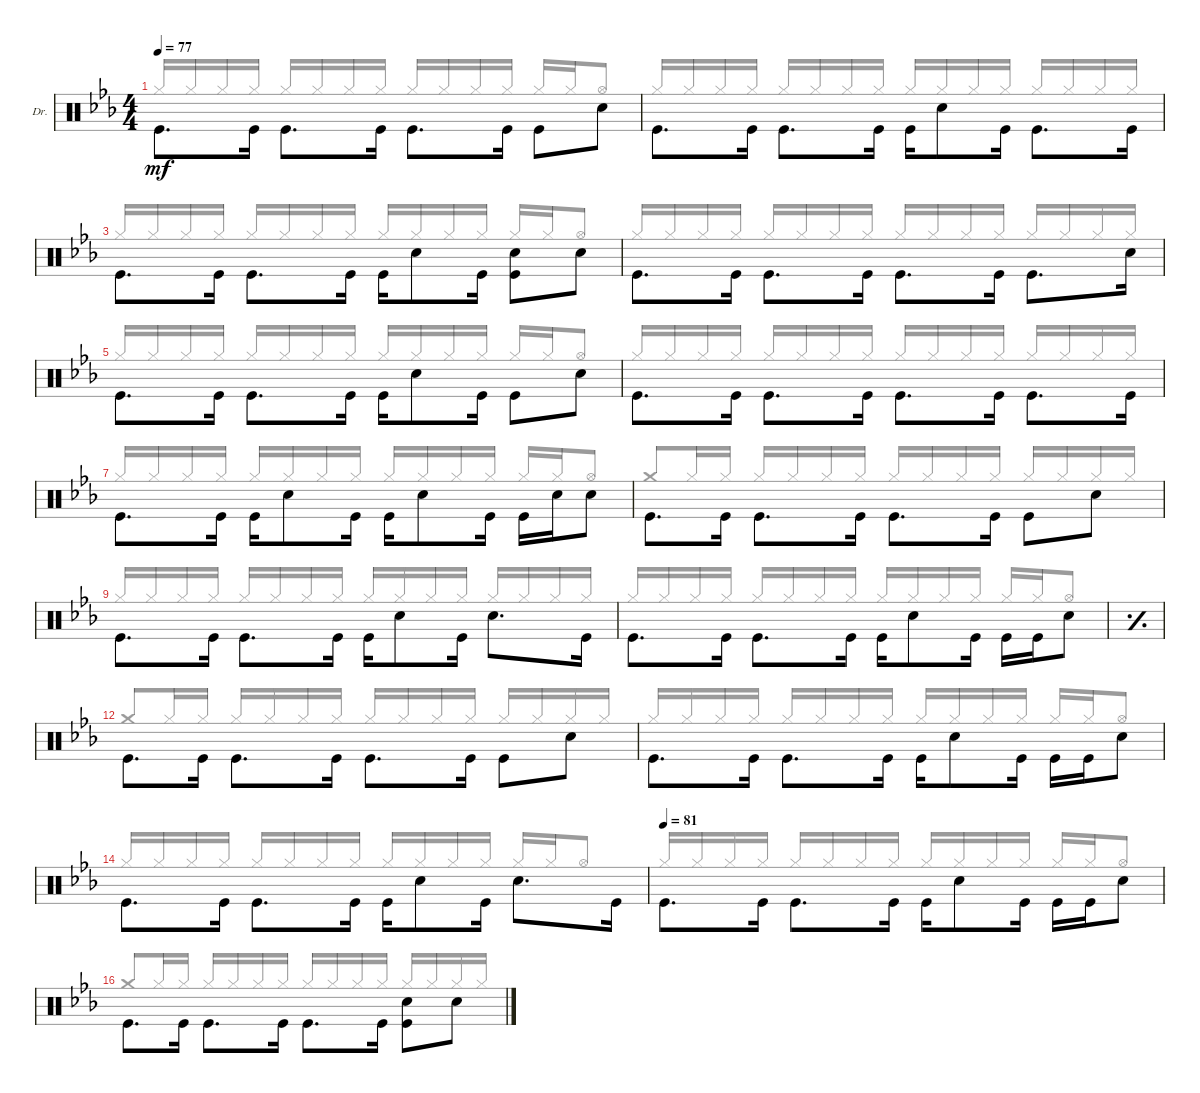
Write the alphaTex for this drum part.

\bracketExtendMode groupsimilarinstruments
\firstSystemTrackNameOrientation horizontal
\otherSystemsTrackNameOrientation horizontal
\defaultBarNumberDisplay FirstOfSystem
\track ("Drums" "Dr.") {multiBarRest instrument percussion}
\staff {score}
\articulation defaults
\voice
\ts (4 4)
\tempo 77
\clef neutral
\ks eb "Kick (hit)".8{d dy mf beam invert} "Kick (hit)".16 "Kick (hit)".8{d beam invert} "Kick (hit)".16 "Kick (hit)".8{d} "Kick (hit)".16{beam invert} "Kick (hit)".8 "Snare (hit) 2".8{beam invert}
|
"Kick (hit)".8{d} "Kick (hit)".16{beam invert} "Kick (hit)".8{d} "Kick (hit)".16{beam invert} "Kick (hit)".16{beam invert} "Snare (hit) 2".8 "Kick (hit)".16 "Kick (hit)".8{d} "Kick (hit)".16{beam invert} |
"Kick (hit)".8{d beam invert} "Kick (hit)".16 "Kick (hit)".8{d beam invert} "Kick (hit)".16 "Kick (hit)".16{beam invert} "Snare (hit) 2".8 "Kick (hit)".16 ("Snare (hit) 2" "Kick (hit)").8{beam invert} "Snare (hit) 2".8 |
"Kick (hit)".8{d beam invert} "Kick (hit)".16 "Kick (hit)".8{d beam invert} "Kick (hit)".16 "Kick (hit)".8{d beam invert} "Kick (hit)".16 "Kick (hit)".8{d beam invert} "Snare (hit) 2".16 |
"Kick (hit)".8{d beam invert} "Kick (hit)".16 "Kick (hit)".8{d beam invert} "Kick (hit)".16 "Kick (hit)".16{beam invert} "Snare (hit) 2".8 "Kick (hit)".16 "Kick (hit)".8 "Snare (hit) 2".8{beam invert} |
"Kick (hit)".8{d beam invert} "Kick (hit)".16 "Kick (hit)".8{d beam invert} "Kick (hit)".16 "Kick (hit)".8{d beam invert} "Kick (hit)".16 "Kick (hit)".8{d beam invert} "Kick (hit)".16 |
"Kick (hit)".8{d beam invert} "Kick (hit)".16 "Kick (hit)".16{beam invert} "Snare (hit) 2".8 "Kick (hit)".16 "Kick (hit)".16{beam invert} "Snare (hit) 2".8 "Kick (hit)".16 "Kick (hit)".16{beam invert} "Snare (hit) 2".16 "Snare (hit) 2".8 |
"Kick (hit)".8{d beam invert} "Kick (hit)".16 "Kick (hit)".8{d beam invert} "Kick (hit)".16 "Kick (hit)".8{d} "Kick (hit)".16{beam invert} "Kick (hit)".8{beam invert} "Snare (hit) 2".8 |
"Kick (hit)".8{d beam invert} "Kick (hit)".16 "Kick (hit)".8{d} "Kick (hit)".16{beam invert} "Kick (hit)".16 "Snare (hit) 2".8 "Kick (hit)".16{beam invert} "Snare (hit) 2".8{d} "Kick (hit)".16{beam invert} |
"Kick (hit)".8{d} "Kick (hit)".16{beam invert} "Kick (hit)".8{d} "Kick (hit)".16{beam invert} "Kick (hit)".16 "Snare (hit) 2".8{beam invert} "Kick (hit)".16 "Kick (hit)".16{beam invert} "Kick (hit)".16 "Snare (hit) 2".8 |
\simile simple
|
\simile none "Kick (hit)".8{d beam invert} "Kick (hit)".16 "Kick (hit)".8{d beam invert} "Kick (hit)".16 "Kick (hit)".8{d} "Kick (hit)".16{beam invert} "Kick (hit)".8{beam invert} "Snare (hit) 2".8
|
"Kick (hit)".8{d beam invert} "Kick (hit)".16 "Kick (hit)".8{d} "Kick (hit)".16{beam invert} "Kick (hit)".16 "Snare (hit) 2".8 "Kick (hit)".16{beam invert} "Kick (hit)".16 "Kick (hit)".16{beam invert} "Snare (hit) 2".8 |
"Kick (hit)".8{d beam invert} "Kick (hit)".16 "Kick (hit)".8{d} "Kick (hit)".16{beam invert} "Kick (hit)".16 "Snare (hit) 2".8 "Kick (hit)".16{beam invert} "Snare (hit) 2".8{d beam invert} "Kick (hit)".16 |
\tempo (81)
"Kick (hit)".8{d beam invert} "Kick (hit)".16 "Kick (hit)".8{d} "Kick (hit)".16{beam invert} "Kick (hit)".16 "Snare (hit) 2".8{beam invert} "Kick (hit)".16 "Kick (hit)".16{beam invert} "Kick (hit)".16 "Snare (hit) 2".8 |
"Kick (hit)".8{d} "Kick (hit)".16{beam invert} "Kick (hit)".8{d} "Kick (hit)".16{beam invert} "Kick (hit)".8{d} "Kick (hit)".16{beam invert} ("Kick (hit)" "Snare (hit) 2").8 "Snare (hit) 2".8{beam invert}
\voice
\clef neutral
\ottava regular
\simile none
\ks eb "Hi-Hat (closed)".16{dy mf beam invert} "Hi-Hat (closed)".16 "Hi-Hat (closed)".16 "Hi-Hat (closed)".16 "Hi-Hat (closed)".16{beam invert} "Hi-Hat (closed)".16 "Hi-Hat (closed)".16 "Hi-Hat (closed)".16 "Hi-Hat (closed)".16{beam invert} "Hi-Hat (closed)".16 "Hi-Hat (closed)".16 "Hi-Hat (closed)".16 "Hi-Hat (closed)".16{beam invert} "Hi-Hat (closed)".16 "Hi-Hat (open)".8
|
"Hi-Hat (closed)".16 "Hi-Hat (closed)".16{beam invert} "Hi-Hat (closed)".16 "Hi-Hat (closed)".16 "Hi-Hat (closed)".16 "Hi-Hat (closed)".16{beam invert} "Hi-Hat (closed)".16 "Hi-Hat (closed)".16 "Hi-Hat (closed)".16 "Hi-Hat (closed)".16{beam invert} "Hi-Hat (closed)".16 "Hi-Hat (closed)".16 "Hi-Hat (closed)".16{beam invert} "Hi-Hat (closed)".16 "Hi-Hat (closed)".16 "Hi-Hat (closed)".16 |
"Hi-Hat (closed)".16{beam invert} "Hi-Hat (closed)".16 "Hi-Hat (closed)".16 "Hi-Hat (closed)".16 "Hi-Hat (closed)".16{beam invert} "Hi-Hat (closed)".16 "Hi-Hat (closed)".16 "Hi-Hat (closed)".16 "Hi-Hat (closed)".16{beam invert} "Hi-Hat (closed)".16 "Hi-Hat (closed)".16 "Hi-Hat (closed)".16 "Hi-Hat (closed)".16{beam invert} "Hi-Hat (closed)".16 "Hi-Hat (open)".8 |
"Hi-Hat (closed)".16{beam invert} "Hi-Hat (closed)".16 "Hi-Hat (closed)".16 "Hi-Hat (closed)".16 "Hi-Hat (closed)".16 "Hi-Hat (closed)".16 "Hi-Hat (closed)".16{beam invert} "Hi-Hat (closed)".16 "Hi-Hat (closed)".16 "Hi-Hat (closed)".16 "Hi-Hat (closed)".16{beam invert} "Hi-Hat (closed)".16 "Hi-Hat (closed)".16 "Hi-Hat (closed)".16 "Hi-Hat (closed)".16{beam invert} "Hi-Hat (closed)".16 |
"Hi-Hat (closed)".16 "Hi-Hat (closed)".16 "Hi-Hat (closed)".16{beam invert} "Hi-Hat (closed)".16 "Hi-Hat (closed)".16 "Hi-Hat (closed)".16 "Hi-Hat (closed)".16{beam invert} "Hi-Hat (closed)".16 "Hi-Hat (closed)".16 "Hi-Hat (closed)".16 "Hi-Hat (closed)".16{beam invert} "Hi-Hat (closed)".16 "Hi-Hat (closed)".16 "Hi-Hat (closed)".16 "Hi-Hat (open)".8{beam invert} |
"Hi-Hat (closed)".16 "Hi-Hat (closed)".16 "Hi-Hat (closed)".16 "Hi-Hat (closed)".16{beam invert} "Hi-Hat (closed)".16 "Hi-Hat (closed)".16 "Hi-Hat (closed)".16 "Hi-Hat (closed)".16{beam invert} "Hi-Hat (closed)".16 "Hi-Hat (closed)".16 "Hi-Hat (closed)".16 "Hi-Hat (closed)".16{beam invert} "Hi-Hat (closed)".16 "Hi-Hat (closed)".16 "Hi-Hat (closed)".16 "Hi-Hat (closed)".16{beam invert} |
"Hi-Hat (closed)".16 "Hi-Hat (closed)".16 "Hi-Hat (closed)".16{beam invert} "Hi-Hat (closed)".16 "Hi-Hat (closed)".16 "Hi-Hat (closed)".16{beam invert} "Hi-Hat (closed)".16 "Hi-Hat (closed)".16 "Hi-Hat (closed)".16{beam invert} "Hi-Hat (closed)".16 "Hi-Hat (closed)".16 "Hi-Hat (closed)".16 "Hi-Hat (closed)".16{beam invert} "Hi-Hat (closed)".16 "Hi-Hat (open)".8 |
"Crash medium (hit)".8 "Hi-Hat (closed)".16{beam invert} "Hi-Hat (closed)".16 "Hi-Hat (closed)".16 "Hi-Hat (closed)".16 "Hi-Hat (closed)".16{beam invert} "Hi-Hat (closed)".16 "Hi-Hat (closed)".16 "Hi-Hat (closed)".16 "Hi-Hat (closed)".16{beam invert} "Hi-Hat (closed)".16 "Hi-Hat (closed)".16 "Hi-Hat (closed)".16 "Hi-Hat (closed)".16{beam invert} "Hi-Hat (closed)".16 |
"Hi-Hat (closed)".16 "Hi-Hat (closed)".16 "Hi-Hat (closed)".16{beam invert} "Hi-Hat (closed)".16 "Hi-Hat (closed)".16 "Hi-Hat (closed)".16 "Hi-Hat (closed)".16{beam invert} "Hi-Hat (closed)".16 "Hi-Hat (closed)".16 "Hi-Hat (closed)".16 "Hi-Hat (closed)".16{beam invert} "Hi-Hat (closed)".16 "Hi-Hat (closed)".16 "Hi-Hat (closed)".16 "Hi-Hat (closed)".16{beam invert} "Hi-Hat (closed)".16 |
"Hi-Hat (closed)".16 "Hi-Hat (closed)".16 "Hi-Hat (closed)".16{beam invert} "Hi-Hat (closed)".16 "Hi-Hat (closed)".16 "Hi-Hat (closed)".16{beam invert} "Hi-Hat (closed)".16 "Hi-Hat (closed)".16 "Hi-Hat (closed)".16{beam invert} "Hi-Hat (closed)".16 "Hi-Hat (closed)".16 "Hi-Hat (closed)".16 "Hi-Hat (closed)".16 "Hi-Hat (closed)".16 "Hi-Hat (open)".8{beam invert} |
\simile simple
|
\simile none "Crash medium (hit)".8{beam invert} "Hi-Hat (closed)".16 "Hi-Hat (closed)".16 "Hi-Hat (closed)".16 "Hi-Hat (closed)".16{beam invert} "Hi-Hat (closed)".16 "Hi-Hat (closed)".16 "Hi-Hat (closed)".16 "Hi-Hat (closed)".16{beam invert} "Hi-Hat (closed)".16 "Hi-Hat (closed)".16 "Hi-Hat (closed)".16 "Hi-Hat (closed)".16{beam invert} "Hi-Hat (closed)".16 "Hi-Hat (closed)".16
|
"Hi-Hat (closed)".16 "Hi-Hat (closed)".16{beam invert} "Hi-Hat (closed)".16 "Hi-Hat (closed)".16 "Hi-Hat (closed)".16 "Hi-Hat (closed)".16{beam invert} "Hi-Hat (closed)".16 "Hi-Hat (closed)".16 "Hi-Hat (closed)".16 "Hi-Hat (closed)".16{beam invert} "Hi-Hat (closed)".16 "Hi-Hat (closed)".16 "Hi-Hat (closed)".16 "Hi-Hat (closed)".16{beam invert} "Hi-Hat (open)".8 |
"Hi-Hat (closed)".16 "Hi-Hat (closed)".16 "Hi-Hat (closed)".16{beam invert} "Hi-Hat (closed)".16 "Hi-Hat (closed)".16 "Hi-Hat (closed)".16 "Hi-Hat (closed)".16{beam invert} "Hi-Hat (closed)".16 "Hi-Hat (closed)".16 "Hi-Hat (closed)".16 "Hi-Hat (closed)".16{beam invert} "Hi-Hat (closed)".16 "Hi-Hat (closed)".16 "Hi-Hat (closed)".16 "Hi-Hat (open)".8{beam invert} |
"Hi-Hat (closed)".16 "Hi-Hat (closed)".16 "Hi-Hat (closed)".16 "Hi-Hat (closed)".16{beam invert} "Hi-Hat (closed)".16 "Hi-Hat (closed)".16 "Hi-Hat (closed)".16{beam invert} "Hi-Hat (closed)".16 "Hi-Hat (closed)".16 "Hi-Hat (closed)".16{beam invert} "Hi-Hat (closed)".16 "Hi-Hat (closed)".16 "Hi-Hat (closed)".16{beam invert} "Hi-Hat (closed)".16 "Hi-Hat (open)".8 |
"Crash medium (hit)".8 "Hi-Hat (closed)".16{beam invert} "Hi-Hat (closed)".16 "Hi-Hat (closed)".16 "Hi-Hat (closed)".16 "Hi-Hat (closed)".16{beam invert} "Hi-Hat (closed)".16 "Hi-Hat (closed)".16 "Hi-Hat (closed)".16 "Hi-Hat (closed)".16{beam invert} "Hi-Hat (closed)".16 "Hi-Hat (closed)".16 "Hi-Hat (closed)".16{beam invert} "Hi-Hat (closed)".16 "Hi-Hat (closed)".16
